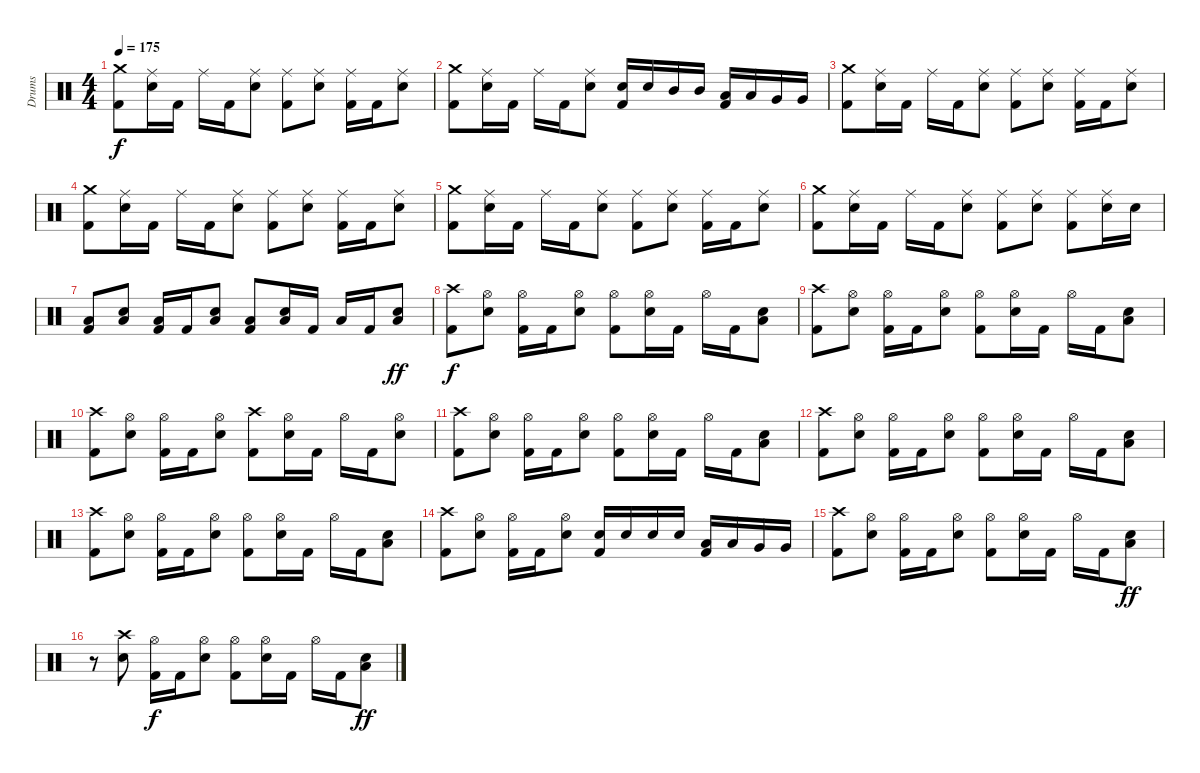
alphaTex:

\track ("Drums" "Drums") {instrument percussion}
\staff {score}
\articulation defaults
\ts (4 4)
\tempo 175
\clef neutral
\ks c
("Crash medium (hit)" "Kick (hit) 2").8{dy f} ("Ride (middle)" "Electric Snare (hit)").16 "Kick (hit) 2".16 "Ride (middle)".16 "Kick (hit) 2".16 ("Ride (middle)" "Electric Snare (hit)").8 ("Ride (middle)" "Kick (hit) 2").8 ("Ride (middle)" "Electric Snare (hit)").8 ("Ride (middle)" "Kick (hit) 2").16 "Kick (hit) 2".16 ("Ride (middle)" "Electric Snare (hit)").8 |
("Crash medium (hit)" "Kick (hit) 2").8 ("Ride (middle)" "Electric Snare (hit)").16 "Kick (hit) 2".16 "Ride (middle)".16 "Kick (hit) 2".16 ("Ride (middle)" "Electric Snare (hit)").8 ("Electric Snare (hit)" "Kick (hit) 2").16 "Electric Snare (hit)".16 "Mid Tom (hit)".16 "Mid Tom (hit)".16 ("Low Tom (hit)" "Kick (hit) 2").16 "Low Tom (hit)".16 "Very Low Tom (hit)".16 "Very Low Tom (hit)".16 |
("Crash medium (hit)" "Kick (hit) 2").8 ("Ride (middle)" "Electric Snare (hit)").16 "Kick (hit) 2".16 "Ride (middle)".16 "Kick (hit) 2".16 ("Ride (middle)" "Electric Snare (hit)").8 ("Ride (middle)" "Kick (hit) 2").8 ("Ride (middle)" "Electric Snare (hit)").8 ("Ride (middle)" "Kick (hit) 2").16 "Kick (hit) 2".16 ("Ride (middle)" "Electric Snare (hit)").8 |
("Crash medium (hit)" "Kick (hit) 2").8 ("Ride (middle)" "Electric Snare (hit)").16 "Kick (hit) 2".16 "Ride (middle)".16 "Kick (hit) 2".16 ("Ride (middle)" "Electric Snare (hit)").8 ("Ride (middle)" "Kick (hit) 2").8 ("Ride (middle)" "Electric Snare (hit)").8 ("Ride (middle)" "Kick (hit) 2").16 "Kick (hit) 2".16 ("Ride (middle)" "Electric Snare (hit)").8 |
("Crash medium (hit)" "Kick (hit) 2").8 ("Ride (middle)" "Electric Snare (hit)").16 "Kick (hit) 2".16 "Ride (middle)".16 "Kick (hit) 2".16 ("Ride (middle)" "Electric Snare (hit)").8 ("Ride (middle)" "Kick (hit) 2").8 ("Ride (middle)" "Electric Snare (hit)").8 ("Ride (middle)" "Kick (hit) 2").16 "Kick (hit) 2".16 ("Ride (middle)" "Electric Snare (hit)").8 |
("Crash medium (hit)" "Kick (hit) 2").8 ("Ride (middle)" "Electric Snare (hit)").16 "Kick (hit) 2".16 "Ride (middle)".16 "Kick (hit) 2".16 ("Ride (middle)" "Electric Snare (hit)").8 ("Ride (middle)" "Kick (hit) 2").8 ("Ride (middle)" "Electric Snare (hit)").8 ("Ride (middle)" "Kick (hit) 2").8 ("Ride (middle)" "Electric Snare (hit)").16 "Electric Snare (hit)".16 |
("Low Floor Tom (hit)" "Kick (hit) 2").8 ("Low Floor Tom (hit)" "Electric Snare (hit)").8 ("Low Floor Tom (hit)" "Kick (hit) 2").16 "Kick (hit) 2".16 ("Low Floor Tom (hit)" "Electric Snare (hit)").8 ("Low Floor Tom (hit)" "Kick (hit) 2").8 ("Low Floor Tom (hit)" "Electric Snare (hit)").16 "Kick (hit) 2".16 "Low Floor Tom (hit)".16 "Kick (hit) 2".16 ("Low Floor Tom (hit)" "Electric Snare (hit)").8{dy ff} |
("Crash high (hit)" "Kick (hit) 2").8{dy f} ("Hi-Hat (open)" "Electric Snare (hit)").8 ("Hi-Hat (open)" "Kick (hit) 2").16 "Kick (hit) 2".16 ("Hi-Hat (open)" "Electric Snare (hit)").8 ("Hi-Hat (open)" "Kick (hit) 2").8 ("Hi-Hat (open)" "Electric Snare (hit)").16 "Kick (hit) 2".16 "Hi-Hat (open)".16 "Kick (hit) 2".16 ("Low Floor Tom (hit)" "Electric Snare (hit)").8 |
("Crash high (hit)" "Kick (hit) 2").8 ("Hi-Hat (open)" "Electric Snare (hit)").8 ("Hi-Hat (open)" "Kick (hit) 2").16 "Kick (hit) 2".16 ("Hi-Hat (open)" "Electric Snare (hit)").8 ("Hi-Hat (open)" "Kick (hit) 2").8 ("Hi-Hat (open)" "Electric Snare (hit)").16 "Kick (hit) 2".16 "Hi-Hat (open)".16 "Kick (hit) 2".16 ("Low Floor Tom (hit)" "Electric Snare (hit)").8 |
("Crash high (hit)" "Kick (hit) 2").8 ("Hi-Hat (open)" "Electric Snare (hit)").8 ("Hi-Hat (open)" "Kick (hit) 2").16 "Kick (hit) 2".16 ("Hi-Hat (open)" "Electric Snare (hit)").8 ("Crash high (hit)" "Kick (hit) 2").8 ("Hi-Hat (open)" "Electric Snare (hit)").16 "Kick (hit) 2".16 "Hi-Hat (open)".16 "Kick (hit) 2".16 ("Hi-Hat (open)" "Electric Snare (hit)").8 |
("Crash high (hit)" "Kick (hit) 2").8 ("Hi-Hat (open)" "Electric Snare (hit)").8 ("Hi-Hat (open)" "Kick (hit) 2").16 "Kick (hit) 2".16 ("Hi-Hat (open)" "Electric Snare (hit)").8 ("Hi-Hat (open)" "Kick (hit) 2").8 ("Hi-Hat (open)" "Electric Snare (hit)").16 "Kick (hit) 2".16 "Hi-Hat (open)".16 "Kick (hit) 2".16 ("Low Floor Tom (hit)" "Electric Snare (hit)").8 |
("Crash high (hit)" "Kick (hit) 2").8 ("Hi-Hat (open)" "Electric Snare (hit)").8 ("Hi-Hat (open)" "Kick (hit) 2").16 "Kick (hit) 2".16 ("Hi-Hat (open)" "Electric Snare (hit)").8 ("Hi-Hat (open)" "Kick (hit) 2").8 ("Hi-Hat (open)" "Electric Snare (hit)").16 "Kick (hit) 2".16 "Hi-Hat (open)".16 "Kick (hit) 2".16 ("Low Floor Tom (hit)" "Electric Snare (hit)").8 |
("Crash high (hit)" "Kick (hit) 2").8 ("Hi-Hat (open)" "Electric Snare (hit)").8 ("Hi-Hat (open)" "Kick (hit) 2").16 "Kick (hit) 2".16 ("Hi-Hat (open)" "Electric Snare (hit)").8 ("Hi-Hat (open)" "Kick (hit) 2").8 ("Hi-Hat (open)" "Electric Snare (hit)").16 "Kick (hit) 2".16 "Hi-Hat (open)".16 "Kick (hit) 2".16 ("Low Floor Tom (hit)" "Electric Snare (hit)").8 |
("Crash high (hit)" "Kick (hit) 2").8 ("Hi-Hat (open)" "Electric Snare (hit)").8 ("Hi-Hat (open)" "Kick (hit) 2").16 "Kick (hit) 2".16 ("Hi-Hat (open)" "Electric Snare (hit)").8 ("Electric Snare (hit)" "Kick (hit) 2").16 "Electric Snare (hit)".16 "Electric Snare (hit)".16 "Electric Snare (hit)".16 ("Low Tom (hit)" "Kick (hit) 2").16 "Low Tom (hit)".16 "Very Low Tom (hit)".16 "Very Low Tom (hit)".16 |
("Crash high (hit)" "Kick (hit) 2").8 ("Hi-Hat (open)" "Electric Snare (hit)").8 ("Hi-Hat (open)" "Kick (hit) 2").16 "Kick (hit) 2".16 ("Hi-Hat (open)" "Electric Snare (hit)").8 ("Hi-Hat (open)" "Kick (hit) 2").8 ("Hi-Hat (open)" "Electric Snare (hit)").16 "Kick (hit) 2".16 "Hi-Hat (open)".16 "Kick (hit) 2".16 ("Low Floor Tom (hit)" "Electric Snare (hit)").8{dy ff} |
r.8 ("Crash high (hit)" "Electric Snare (hit)").8 ("Hi-Hat (open)" "Kick (hit) 2").16{dy f} "Kick (hit) 2".16 ("Hi-Hat (open)" "Electric Snare (hit)").8 ("Hi-Hat (open)" "Kick (hit) 2").8 ("Hi-Hat (open)" "Electric Snare (hit)").16 "Kick (hit) 2".16 "Hi-Hat (open)".16 "Kick (hit) 2".16 ("Low Floor Tom (hit)" "Electric Snare (hit)").8{dy ff}
